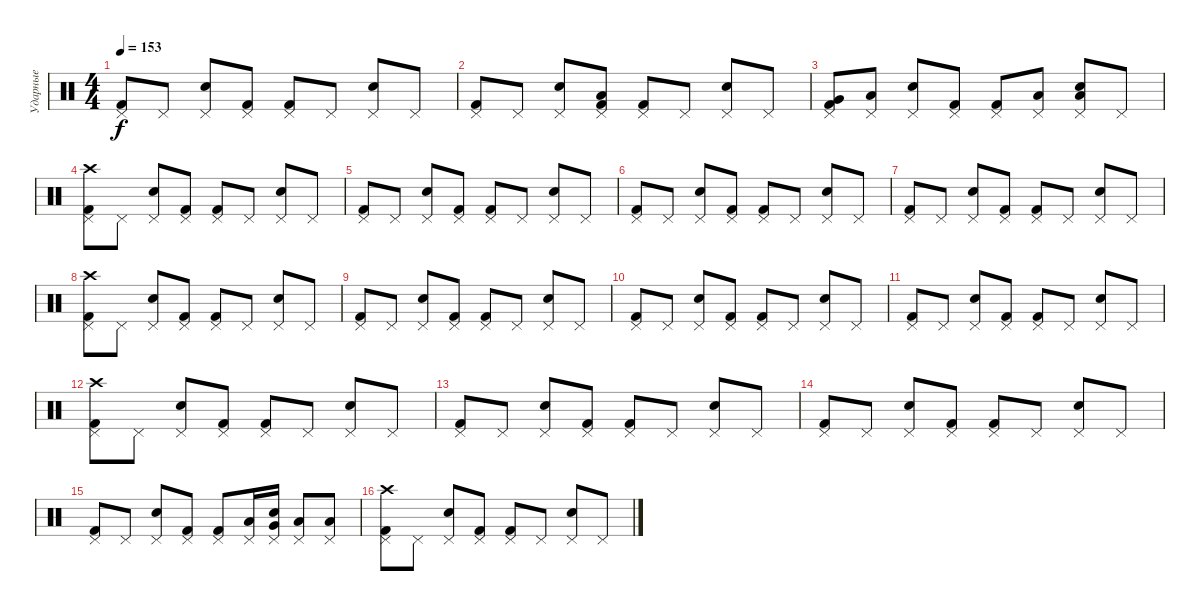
\track ("Ударные" "Ударные") {instrument percussion}
\staff {score}
\articulation defaults
\ts (4 4)
\tempo 153
\clef neutral
\ks c
("Pedal Hi-Hat (hit)" "Kick (hit) 2").8{dy f} "Pedal Hi-Hat (hit)".8 ("Electric Snare (hit)" "Pedal Hi-Hat (hit)").8 ("Pedal Hi-Hat (hit)" "Kick (hit) 2").8 ("Pedal Hi-Hat (hit)" "Kick (hit) 2").8 "Pedal Hi-Hat (hit)".8 ("Electric Snare (hit)" "Pedal Hi-Hat (hit)").8 "Pedal Hi-Hat (hit)".8 |
("Pedal Hi-Hat (hit)" "Kick (hit) 2").8 "Pedal Hi-Hat (hit)".8 ("Electric Snare (hit)" "Pedal Hi-Hat (hit)").8 ("Low Floor Tom (hit)" "Pedal Hi-Hat (hit)" "Kick (hit) 2").8 ("Pedal Hi-Hat (hit)" "Kick (hit) 2").8 "Pedal Hi-Hat (hit)".8 ("Electric Snare (hit)" "Pedal Hi-Hat (hit)").8 "Pedal Hi-Hat (hit)".8 |
("Very Low Tom (hit)" "Pedal Hi-Hat (hit)" "Kick (hit) 2").8 ("Low Floor Tom (hit)" "Pedal Hi-Hat (hit)").8 ("Electric Snare (hit)" "Pedal Hi-Hat (hit)").8 ("Pedal Hi-Hat (hit)" "Kick (hit) 2").8 ("Pedal Hi-Hat (hit)" "Kick (hit) 2").8 ("Low Floor Tom (hit)" "Pedal Hi-Hat (hit)").8 ("Low Floor Tom (hit)" "Electric Snare (hit)" "Pedal Hi-Hat (hit)").8 "Pedal Hi-Hat (hit)".8 |
("Crash high (hit)" "Pedal Hi-Hat (hit)" "Kick (hit) 2").8 "Pedal Hi-Hat (hit)".8 ("Electric Snare (hit)" "Pedal Hi-Hat (hit)").8 ("Pedal Hi-Hat (hit)" "Kick (hit) 2").8 ("Pedal Hi-Hat (hit)" "Kick (hit) 2").8 "Pedal Hi-Hat (hit)".8 ("Electric Snare (hit)" "Pedal Hi-Hat (hit)").8 "Pedal Hi-Hat (hit)".8 |
("Pedal Hi-Hat (hit)" "Kick (hit) 2").8 "Pedal Hi-Hat (hit)".8 ("Electric Snare (hit)" "Pedal Hi-Hat (hit)").8 ("Pedal Hi-Hat (hit)" "Kick (hit) 2").8 ("Pedal Hi-Hat (hit)" "Kick (hit) 2").8 "Pedal Hi-Hat (hit)".8 ("Electric Snare (hit)" "Pedal Hi-Hat (hit)").8 "Pedal Hi-Hat (hit)".8 |
("Pedal Hi-Hat (hit)" "Kick (hit) 2").8 "Pedal Hi-Hat (hit)".8 ("Electric Snare (hit)" "Pedal Hi-Hat (hit)").8 ("Pedal Hi-Hat (hit)" "Kick (hit) 2").8 ("Pedal Hi-Hat (hit)" "Kick (hit) 2").8 "Pedal Hi-Hat (hit)".8 ("Electric Snare (hit)" "Pedal Hi-Hat (hit)").8 "Pedal Hi-Hat (hit)".8 |
("Pedal Hi-Hat (hit)" "Kick (hit) 2").8 "Pedal Hi-Hat (hit)".8 ("Electric Snare (hit)" "Pedal Hi-Hat (hit)").8 ("Pedal Hi-Hat (hit)" "Kick (hit) 2").8 ("Pedal Hi-Hat (hit)" "Kick (hit) 2").8 "Pedal Hi-Hat (hit)".8 ("Electric Snare (hit)" "Pedal Hi-Hat (hit)").8 "Pedal Hi-Hat (hit)".8 |
("Crash high (hit)" "Pedal Hi-Hat (hit)" "Kick (hit) 2").8 "Pedal Hi-Hat (hit)".8 ("Electric Snare (hit)" "Pedal Hi-Hat (hit)").8 ("Pedal Hi-Hat (hit)" "Kick (hit) 2").8 ("Pedal Hi-Hat (hit)" "Kick (hit) 2").8 "Pedal Hi-Hat (hit)".8 ("Electric Snare (hit)" "Pedal Hi-Hat (hit)").8 "Pedal Hi-Hat (hit)".8 |
("Pedal Hi-Hat (hit)" "Kick (hit) 2").8 "Pedal Hi-Hat (hit)".8 ("Electric Snare (hit)" "Pedal Hi-Hat (hit)").8 ("Pedal Hi-Hat (hit)" "Kick (hit) 2").8 ("Pedal Hi-Hat (hit)" "Kick (hit) 2").8 "Pedal Hi-Hat (hit)".8 ("Electric Snare (hit)" "Pedal Hi-Hat (hit)").8 "Pedal Hi-Hat (hit)".8 |
("Pedal Hi-Hat (hit)" "Kick (hit) 2").8 "Pedal Hi-Hat (hit)".8 ("Electric Snare (hit)" "Pedal Hi-Hat (hit)").8 ("Pedal Hi-Hat (hit)" "Kick (hit) 2").8 ("Pedal Hi-Hat (hit)" "Kick (hit) 2").8 "Pedal Hi-Hat (hit)".8 ("Electric Snare (hit)" "Pedal Hi-Hat (hit)").8 "Pedal Hi-Hat (hit)".8 |
("Pedal Hi-Hat (hit)" "Kick (hit) 2").8 "Pedal Hi-Hat (hit)".8 ("Electric Snare (hit)" "Pedal Hi-Hat (hit)").8 ("Pedal Hi-Hat (hit)" "Kick (hit) 2").8 ("Pedal Hi-Hat (hit)" "Kick (hit) 2").8 "Pedal Hi-Hat (hit)".8 ("Electric Snare (hit)" "Pedal Hi-Hat (hit)").8 "Pedal Hi-Hat (hit)".8 |
("Crash high (hit)" "Pedal Hi-Hat (hit)" "Kick (hit) 2").8 "Pedal Hi-Hat (hit)".8 ("Electric Snare (hit)" "Pedal Hi-Hat (hit)").8 ("Pedal Hi-Hat (hit)" "Kick (hit) 2").8 ("Pedal Hi-Hat (hit)" "Kick (hit) 2").8 "Pedal Hi-Hat (hit)".8 ("Electric Snare (hit)" "Pedal Hi-Hat (hit)").8 "Pedal Hi-Hat (hit)".8 |
("Pedal Hi-Hat (hit)" "Kick (hit) 2").8 "Pedal Hi-Hat (hit)".8 ("Electric Snare (hit)" "Pedal Hi-Hat (hit)").8 ("Pedal Hi-Hat (hit)" "Kick (hit) 2").8 ("Pedal Hi-Hat (hit)" "Kick (hit) 2").8 "Pedal Hi-Hat (hit)".8 ("Electric Snare (hit)" "Pedal Hi-Hat (hit)").8 "Pedal Hi-Hat (hit)".8 |
("Pedal Hi-Hat (hit)" "Kick (hit) 2").8 "Pedal Hi-Hat (hit)".8 ("Electric Snare (hit)" "Pedal Hi-Hat (hit)").8 ("Pedal Hi-Hat (hit)" "Kick (hit) 2").8 ("Pedal Hi-Hat (hit)" "Kick (hit) 2").8 "Pedal Hi-Hat (hit)".8 ("Electric Snare (hit)" "Pedal Hi-Hat (hit)").8 "Pedal Hi-Hat (hit)".8 |
("Pedal Hi-Hat (hit)" "Kick (hit) 2").8 "Pedal Hi-Hat (hit)".8 ("Electric Snare (hit)" "Pedal Hi-Hat (hit)").8 ("Pedal Hi-Hat (hit)" "Kick (hit) 2").8 ("Pedal Hi-Hat (hit)" "Kick (hit) 2").8 ("Low Tom (hit)" "Pedal Hi-Hat (hit)").16 ("Very Low Tom (hit)" "Electric Snare (hit)" "Pedal Hi-Hat (hit)").16 ("Low Tom (hit)" "Pedal Hi-Hat (hit)").8 ("Low Floor Tom (hit)" "Pedal Hi-Hat (hit)").8 |
("Crash high (hit)" "Pedal Hi-Hat (hit)" "Kick (hit) 2").8 "Pedal Hi-Hat (hit)".8 ("Electric Snare (hit)" "Pedal Hi-Hat (hit)").8 ("Pedal Hi-Hat (hit)" "Kick (hit) 2").8 ("Pedal Hi-Hat (hit)" "Kick (hit) 2").8 "Pedal Hi-Hat (hit)".8 ("Electric Snare (hit)" "Pedal Hi-Hat (hit)").8 "Pedal Hi-Hat (hit)".8
